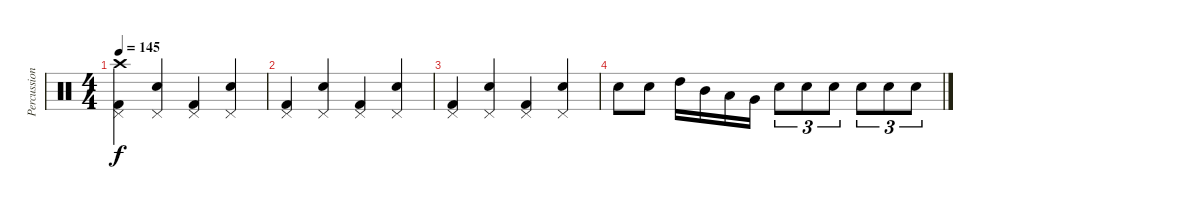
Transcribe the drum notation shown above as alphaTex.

\track ("Percussion" "Percussion") {instrument percussion}
\staff {score}
\articulation defaults
\ts (4 4)
\tempo 145
\clef neutral
\ks c
("Pedal Hi-Hat (hit)" "Kick (hit) 2" "Crash high (hit)").4{dy f} ("Pedal Hi-Hat (hit)" "Snare (hit) 2").4 ("Pedal Hi-Hat (hit)" "Kick (hit) 2").4 ("Pedal Hi-Hat (hit)" "Snare (hit) 2").4 |
("Pedal Hi-Hat (hit)" "Kick (hit) 2").4 ("Pedal Hi-Hat (hit)" "Snare (hit) 2").4 ("Pedal Hi-Hat (hit)" "Kick (hit) 2").4 ("Pedal Hi-Hat (hit)" "Snare (hit) 2").4 |
("Pedal Hi-Hat (hit)" "Kick (hit) 2").4 ("Pedal Hi-Hat (hit)" "Snare (hit) 2").4 ("Pedal Hi-Hat (hit)" "Kick (hit) 2").4 ("Pedal Hi-Hat (hit)" "Snare (hit) 2").4 |
"Snare (hit) 2".8 "Snare (hit) 2".8 "High Tom (hit)".16 "Mid Tom (hit)".16 "Low Tom (hit)".16 "Very Low Tom (hit)".16 "Snare (hit) 2".8{tu (3 2)} "Snare (hit) 2".8{tu (3 2)} "Snare (hit) 2".8{tu (3 2)} "Snare (hit) 2".8{tu (3 2)} "Snare (hit) 2".8{tu (3 2)} "Snare (hit) 2".8{tu (3 2)}
